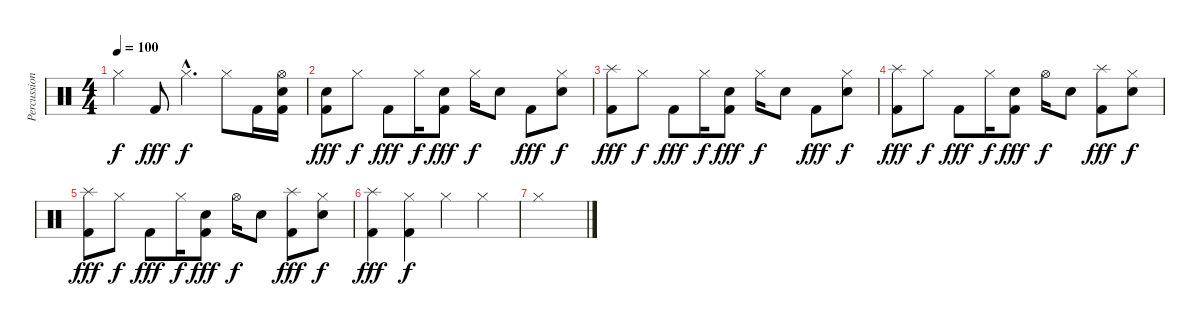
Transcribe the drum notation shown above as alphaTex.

\track ("Percussion" "Percussion") {instrument percussion}
\staff {score}
\articulation defaults
\ts (4 4)
\tempo 100
\clef neutral
\ks c "Hi-Hat (closed)".4{dy f} "Kick (hit) 2".8{dy fff} "Hi-Hat (closed)"{hac}.4{d dy f} "Hi-Hat (closed)".8 "Kick (hit) 2".16
("Hi-Hat (open)" "Electric Snare (hit)" "Kick (hit) 2").16 |
("Electric Snare (hit)" "Kick (hit) 2").8{dy fff volume 9} "Hi-Hat (closed)".8{dy f} "Kick (hit) 2".8{dy fff} "Hi-Hat (closed)".16{dy f} ("Electric Snare (hit)" "Kick (hit) 2").8{dy fff} "Hi-Hat (closed)".16{dy f} "Electric Snare (hit)".8 "Kick (hit) 2".8{dy fff} ("Hi-Hat (closed)" "Electric Snare (hit)").8{dy f} |
("Splash (hit)" "Kick (hit) 2").8{dy fff} "Hi-Hat (closed)".8{dy f} "Kick (hit) 2".8{dy fff} "Hi-Hat (closed)".16{dy f} ("Electric Snare (hit)" "Kick (hit) 2").8{dy fff} "Hi-Hat (closed)".16{dy f} "Electric Snare (hit)".8 "Kick (hit) 2".8{dy fff} ("Hi-Hat (closed)" "Electric Snare (hit)").8{dy f} |
("Splash (hit)" "Kick (hit) 2").8{dy fff volume 6} "Hi-Hat (closed)".8{dy f} "Kick (hit) 2".8{dy fff} "Hi-Hat (closed)".16{dy f} ("Electric Snare (hit)" "Kick (hit) 2").8{dy fff} "Hi-Hat (open)".16{dy f} "Electric Snare (hit)".8 ("Splash (hit)" "Kick (hit) 2").8{dy fff} ("Hi-Hat (closed)" "Electric Snare (hit)").8{dy f} |
("Splash (hit)" "Kick (hit) 2").8{dy fff} "Hi-Hat (closed)".8{dy f} "Kick (hit) 2".8{dy fff} "Hi-Hat (closed)".16{dy f} ("Electric Snare (hit)" "Kick (hit) 2").8{dy fff} "Hi-Hat (open)".16{dy f} "Electric Snare (hit)".8 ("Splash (hit)" "Kick (hit) 2").8{dy fff} ("Hi-Hat (closed)" "Electric Snare (hit)").8{dy f} |
("Splash (hit)" "Kick (hit) 2").4{dy fff} ("Hi-Hat (closed)" "Kick (hit) 2").4{dy f} "Hi-Hat (closed)".4 "Hi-Hat (closed)".4 |
"Hi-Hat (closed)".1
